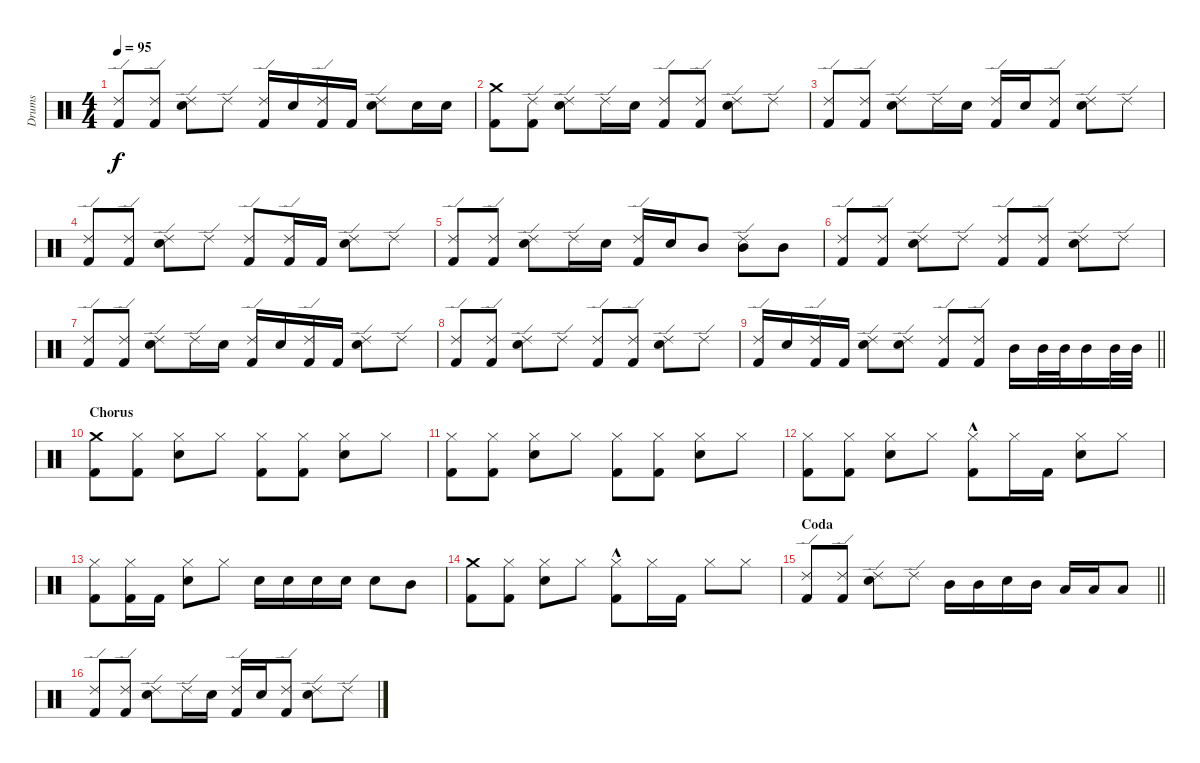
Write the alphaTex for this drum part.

\track ("Drums" "Drums") {instrument percussion}
\staff {score}
\articulation defaults
\ts (4 4)
\tempo 95
\clef neutral
\ks c
("Ride (edge) 2" "Kick (hit) 2").8{dy f} ("Ride (edge) 2" "Kick (hit) 2").8 ("Ride (edge) 2" "Snare (hit) 2").8 "Ride (edge) 2".8 ("Ride (edge) 2" "Kick (hit) 2").16 "Snare (hit) 2".16 ("Ride (edge) 2" "Kick (hit) 2").16 "Kick (hit) 2".16 ("Ride (edge) 2" "Snare (hit) 2").8 "Snare (hit) 2".16 "Snare (hit) 2".16 |
("Crash medium (hit)" "Kick (hit) 2").8 ("Ride (edge) 2" "Kick (hit) 2").8 ("Ride (edge) 2" "Snare (hit) 2").8 "Ride (edge) 2".16 "Snare (hit) 2".16 ("Ride (edge) 2" "Kick (hit) 2").8 ("Ride (edge) 2" "Kick (hit) 2").8 ("Ride (edge) 2" "Snare (hit) 2").8 "Ride (edge) 2".8 |
("Ride (edge) 2" "Kick (hit) 2").8 ("Ride (edge) 2" "Kick (hit) 2").8 ("Ride (edge) 2" "Snare (hit) 2").8 "Ride (edge) 2".16 "Snare (hit) 2".16 ("Ride (edge) 2" "Kick (hit) 2").16 "Snare (hit) 2".16 ("Ride (edge) 2" "Kick (hit) 2").8 ("Ride (edge) 2" "Snare (hit) 2").8 "Ride (edge) 2".8 |
("Ride (edge) 2" "Kick (hit) 2").8 ("Ride (edge) 2" "Kick (hit) 2").8 ("Ride (edge) 2" "Snare (hit) 2").8 "Ride (edge) 2".8 ("Ride (edge) 2" "Kick (hit) 2").8 ("Ride (edge) 2" "Kick (hit) 2").16 "Kick (hit) 2".16 ("Ride (edge) 2" "Snare (hit) 2").8 "Ride (edge) 2".8 |
("Ride (edge) 2" "Kick (hit) 2").8 ("Ride (edge) 2" "Kick (hit) 2").8 ("Ride (edge) 2" "Snare (hit) 2").8 "Ride (edge) 2".16 "Snare (hit) 2".16 ("Ride (edge) 2" "Kick (hit) 2").16 "Snare (hit) 2".16 "Mid Tom (hit)".8 ("Ride (edge) 2" "Mid Tom (hit)").8 "Mid Tom (hit)".8 |
("Ride (edge) 2" "Kick (hit) 2").8 ("Ride (edge) 2" "Kick (hit) 2").8 ("Ride (edge) 2" "Snare (hit) 2").8 "Ride (edge) 2".8 ("Ride (edge) 2" "Kick (hit) 2").8 ("Ride (edge) 2" "Kick (hit) 2").8 ("Ride (edge) 2" "Snare (hit) 2").8 "Ride (edge) 2".8 |
("Ride (edge) 2" "Kick (hit) 2").8 ("Ride (edge) 2" "Kick (hit) 2").8 ("Ride (edge) 2" "Snare (hit) 2").8 "Ride (edge) 2".16 "Snare (hit) 2".16 ("Ride (edge) 2" "Kick (hit) 2").16 "Snare (hit) 2".16 ("Ride (edge) 2" "Kick (hit) 2").16 "Kick (hit) 2".16 ("Ride (edge) 2" "Snare (hit) 2").8 "Ride (edge) 2".8 |
("Ride (edge) 2" "Kick (hit) 2").8 ("Ride (edge) 2" "Kick (hit) 2").8 ("Ride (edge) 2" "Snare (hit) 2").8 "Ride (edge) 2".8 ("Ride (edge) 2" "Kick (hit) 2").8 ("Ride (edge) 2" "Kick (hit) 2").8 ("Ride (edge) 2" "Snare (hit) 2").8 "Ride (edge) 2".8 |
\barLineRight lightlight
("Ride (edge) 2" "Kick (hit) 2").16 "Snare (hit) 2".16 ("Ride (edge) 2" "Kick (hit) 2").16 "Kick (hit) 2".16 ("Ride (edge) 2" "Snare (hit) 2").8 ("Ride (edge) 2" "Snare (hit) 2").8 ("Ride (edge) 2" "Kick (hit) 2").8 ("Ride (edge) 2" "Kick (hit) 2").8 "Mid Tom (hit)".16 "Mid Tom (hit)".32 "Mid Tom (hit)".32 "Mid Tom (hit)".16 "Mid Tom (hit)".32 "Mid Tom (hit)".32 |
\section ("" "Chorus")
("Crash medium (hit)" "Kick (hit) 2").8 ("Hi-Hat (closed)" "Kick (hit) 2").8 ("Hi-Hat (closed)" "Snare (hit) 2").8 "Hi-Hat (closed)".8 ("Hi-Hat (closed)" "Kick (hit) 2").8 ("Hi-Hat (closed)" "Kick (hit) 2").8 ("Hi-Hat (closed)" "Snare (hit) 2").8 "Hi-Hat (closed)".8 |
("Hi-Hat (closed)" "Kick (hit) 2").8 ("Hi-Hat (closed)" "Kick (hit) 2").8 ("Hi-Hat (closed)" "Snare (hit) 2").8 "Hi-Hat (closed)".8 ("Hi-Hat (closed)" "Kick (hit) 2").8 ("Hi-Hat (closed)" "Kick (hit) 2").8 ("Hi-Hat (closed)" "Snare (hit) 2").8 "Hi-Hat (closed)".8 |
("Hi-Hat (closed)" "Kick (hit) 2").8 ("Hi-Hat (closed)" "Kick (hit) 2").8 ("Hi-Hat (closed)" "Snare (hit) 2").8 "Hi-Hat (closed)".8 ("Hi-Hat (closed)" "Kick (hit) 2"{hac}).8 "Hi-Hat (closed)".16 "Kick (hit) 2".16 ("Hi-Hat (closed)" "Snare (hit) 2").8 "Hi-Hat (closed)".8 |
("Hi-Hat (closed)" "Kick (hit) 2").8 ("Hi-Hat (closed)" "Kick (hit) 2").16 "Kick (hit) 2".16 ("Hi-Hat (closed)" "Snare (hit) 2").8 "Hi-Hat (closed)".8 "Snare (hit) 2".16 "Snare (hit) 2".16 "Snare (hit) 2".16 "Snare (hit) 2".16 "Snare (hit) 2".8 "Mid Tom (hit)".8 |
("Crash medium (hit)" "Kick (hit) 2").8 ("Hi-Hat (closed)" "Kick (hit) 2").8 ("Hi-Hat (closed)" "Snare (hit) 2").8 "Hi-Hat (closed)".8 ("Hi-Hat (closed)" "Kick (hit) 2"{hac}).8 "Hi-Hat (closed)".16 "Kick (hit) 2".16 "Hi-Hat (closed)".8 "Hi-Hat (closed)".8 |
\section ("" "Coda ")
\barLineRight lightlight
("Ride (edge) 2" "Kick (hit) 2").8 ("Ride (edge) 2" "Kick (hit) 2").8 ("Ride (edge) 2" "Snare (hit) 2").8 "Ride (edge) 2".8 "Mid Tom (hit)".16 "Mid Tom (hit)".16 "Snare (hit) 2".16 "Mid Tom (hit)".16 "Low Tom (hit)".16 "Low Tom (hit)".16 "Low Tom (hit)".8 |
("Ride (edge) 2" "Kick (hit) 2").8 ("Ride (edge) 2" "Kick (hit) 2").8 ("Ride (edge) 2" "Snare (hit) 2").8 "Ride (edge) 2".16 "Snare (hit) 2".16 ("Ride (edge) 2" "Kick (hit) 2").16 "Snare (hit) 2".16 ("Ride (edge) 2" "Kick (hit) 2").8 ("Ride (edge) 2" "Snare (hit) 2").8 "Ride (edge) 2".8
